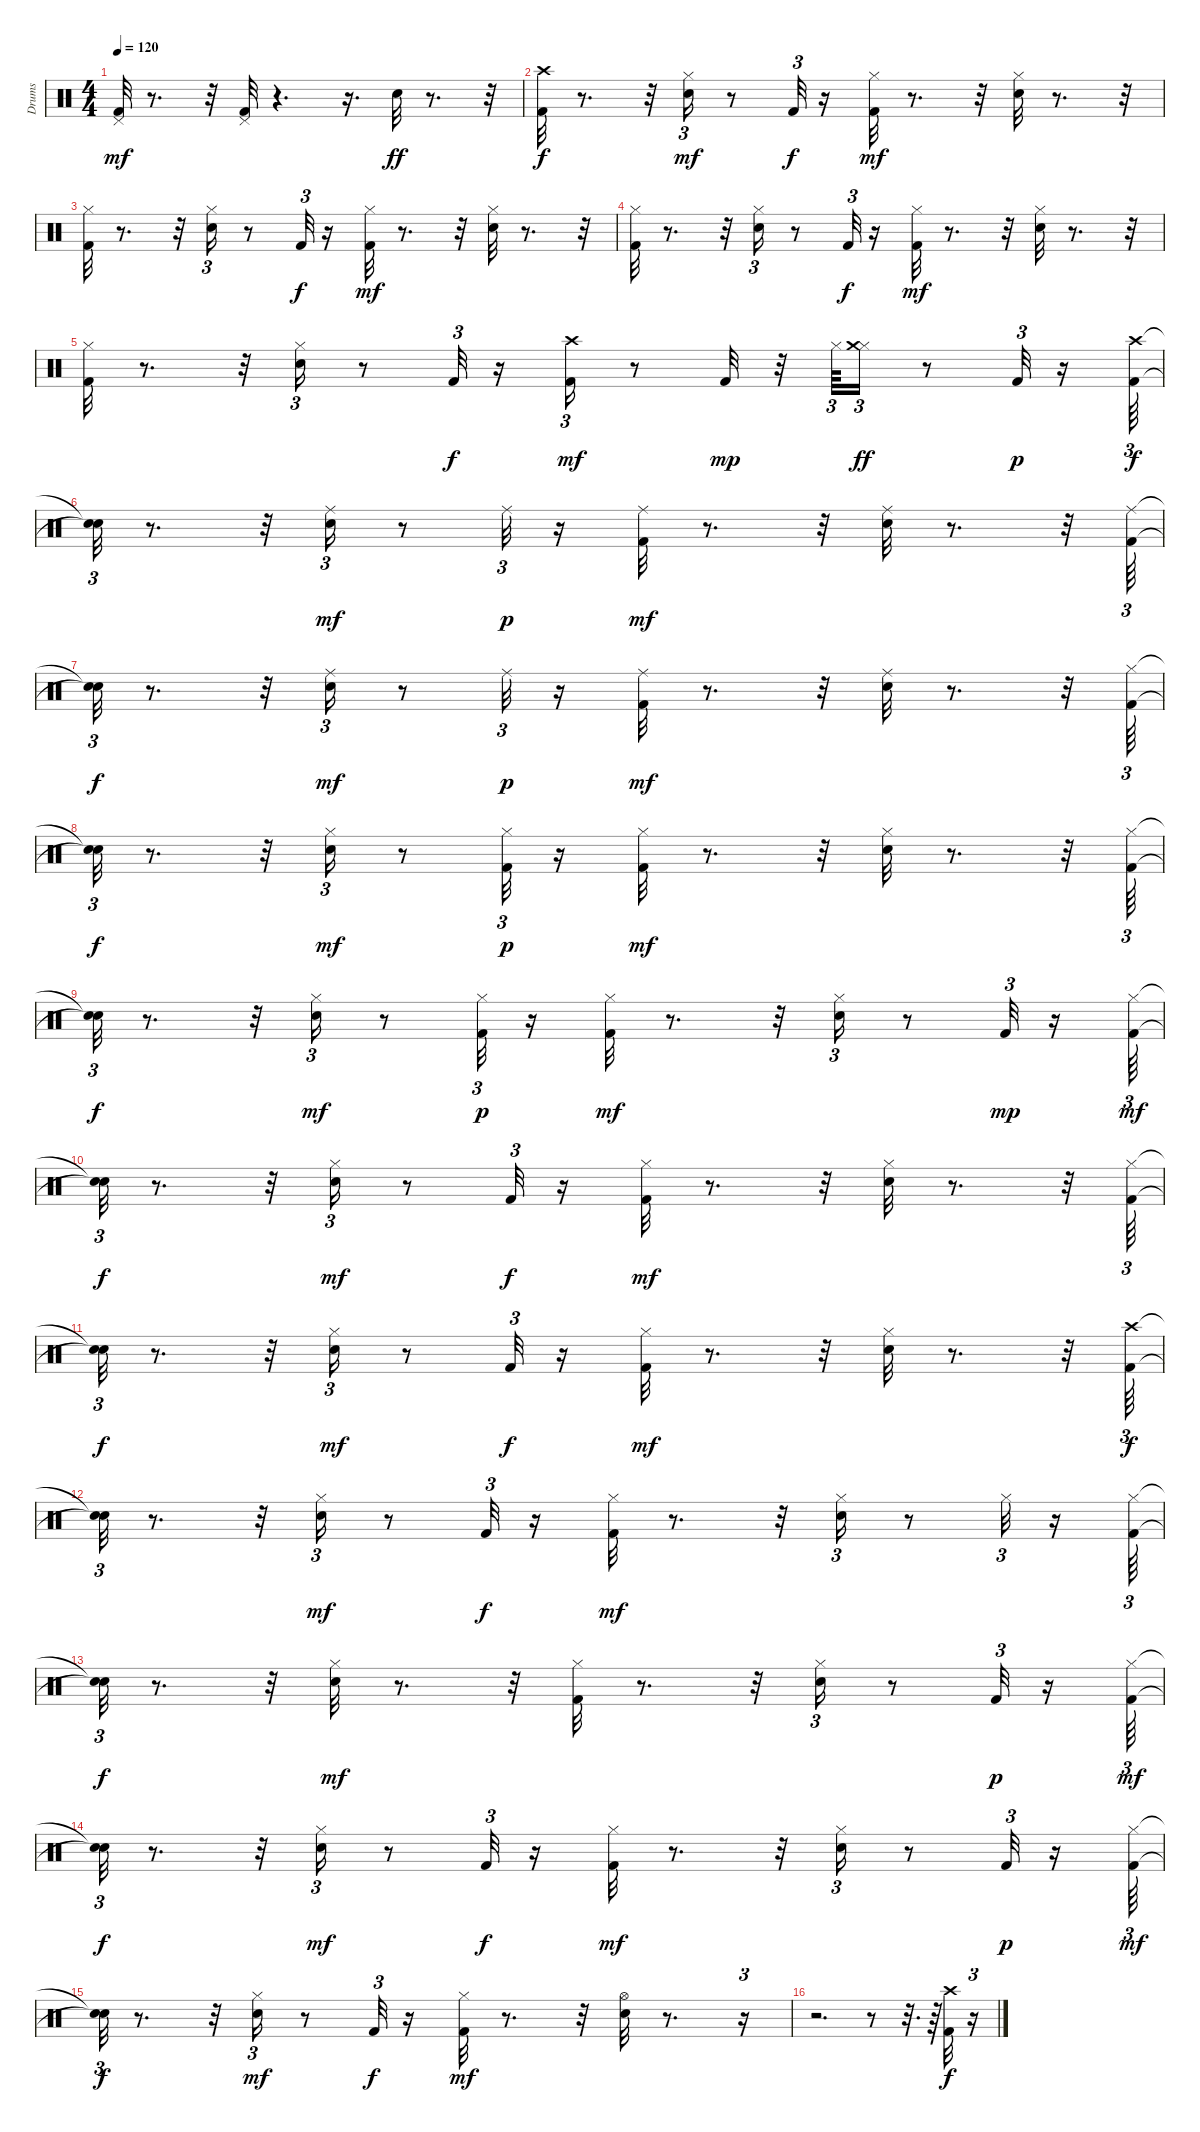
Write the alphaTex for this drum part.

\track ("Drums" "Drums") {instrument percussion}
\staff {score}
\articulation defaults
\ts (4 4)
\tempo 120
\clef neutral
\ks c
("Kick (hit) 2" "Pedal Hi-Hat (hit)").32{dy mf} r.8{d} r.32 ("Kick (hit) 2" "Pedal Hi-Hat (hit)").32 r.4{d} r.16{d} "Electric Snare (hit)".32{dy ff} r.8{d} r.32 |
("Kick (hit) 2" "Crash high (hit)").32{dy f} r.8{d} r.32 ("Electric Snare (hit)" "Hi-Hat (closed)").16{tu (3 2) dy mf} r.8 "Kick (hit) 2".32{tu (3 2) dy f} r.16 ("Kick (hit) 2" "Hi-Hat (closed)").32{dy mf} r.8{d} r.32 ("Electric Snare (hit)" "Hi-Hat (closed)").32 r.8{d} r.32 |
("Kick (hit) 2" "Hi-Hat (closed)").32 r.8{d} r.32 ("Electric Snare (hit)" "Hi-Hat (closed)").16{tu (3 2)} r.8 "Kick (hit) 2".32{tu (3 2) dy f} r.16 ("Kick (hit) 2" "Hi-Hat (closed)").32{dy mf} r.8{d} r.32 ("Electric Snare (hit)" "Hi-Hat (closed)").32 r.8{d} r.32 |
("Kick (hit) 2" "Hi-Hat (closed)").32 r.8{d} r.32 ("Electric Snare (hit)" "Hi-Hat (closed)").16{tu (3 2)} r.8 "Kick (hit) 2".32{tu (3 2) dy f} r.16 ("Kick (hit) 2" "Hi-Hat (closed)").32{dy mf} r.8{d} r.32 ("Electric Snare (hit)" "Hi-Hat (closed)").32 r.8{d} r.32 |
("Kick (hit) 2" "Hi-Hat (closed)").32 r.8{d} r.32 ("Electric Snare (hit)" "Hi-Hat (closed)").16{tu (3 2)} r.8 "Kick (hit) 2".32{tu (3 2) dy f} r.16 ("Kick (hit) 2" "Crash high (hit)").16{tu (3 2) dy mf} r.8 "Kick (hit) 2".32{dy mp} r.32 "Hi-Hat (closed)".64{tu (3 2)} ("Hi-Hat (closed)" "Crash medium (hit)").16{tu (3 2) dy ff} r.8 "Kick (hit) 2".32{tu (3 2) dy p} r.16 ("Kick (hit) 2" "Crash high (hit)").64{tu (3 2) dy f} |
("Snare (hit)"{t} "Snare (hit)"{t}).32{tu (3 2)} r.8{d} r.32 ("Electric Snare (hit)" "Ride (middle)").16{tu (3 2) dy mf} r.8 "Ride (middle)".32{tu (3 2) dy p} r.16 ("Kick (hit) 2" "Ride (middle)").32{dy mf} r.8{d} r.32 ("Electric Snare (hit)" "Ride (middle)").32 r.8{d} r.32 ("Kick (hit) 2" "Ride (middle)").64{tu (3 2)} |
("Snare (hit)"{t} "Snare (hit)"{t}).32{tu (3 2) dy f} r.8{d} r.32 ("Electric Snare (hit)" "Ride (middle)").16{tu (3 2) dy mf} r.8 "Ride (middle)".32{tu (3 2) dy p} r.16 ("Kick (hit) 2" "Ride (middle)").32{dy mf} r.8{d} r.32 ("Electric Snare (hit)" "Ride (middle)").32 r.8{d} r.32 ("Kick (hit) 2" "Hi-Hat (closed)").64{tu (3 2)} |
("Snare (hit)"{t} "Snare (hit)"{t}).32{tu (3 2) dy f} r.8{d} r.32 ("Electric Snare (hit)" "Hi-Hat (closed)").16{tu (3 2) dy mf} r.8 ("Kick (hit) 2" "Hi-Hat (closed)").32{tu (3 2) dy p} r.16 ("Kick (hit) 2" "Hi-Hat (closed)").32{dy mf} r.8{d} r.32 ("Electric Snare (hit)" "Hi-Hat (closed)").32 r.8{d} r.32 ("Kick (hit) 2" "Hi-Hat (closed)").64{tu (3 2)} |
("Snare (hit)"{t} "Snare (hit)"{t}).32{tu (3 2) dy f} r.8{d} r.32 ("Electric Snare (hit)" "Hi-Hat (closed)").16{tu (3 2) dy mf} r.8 ("Kick (hit) 2" "Hi-Hat (closed)").32{tu (3 2) dy p} r.16 ("Kick (hit) 2" "Hi-Hat (closed)").32{dy mf} r.8{d} r.32 ("Electric Snare (hit)" "Hi-Hat (closed)").16{tu (3 2)} r.8 "Kick (hit) 2".32{tu (3 2) dy mp} r.16 ("Kick (hit) 2" "Hi-Hat (closed)").64{tu (3 2) dy mf} |
("Snare (hit)"{t} "Snare (hit)"{t}).32{tu (3 2) dy f} r.8{d} r.32 ("Electric Snare (hit)" "Hi-Hat (closed)").16{tu (3 2) dy mf} r.8 "Kick (hit) 2".32{tu (3 2) dy f} r.16 ("Kick (hit) 2" "Hi-Hat (closed)").32{dy mf} r.8{d} r.32 ("Electric Snare (hit)" "Hi-Hat (closed)").32 r.8{d} r.32 ("Kick (hit) 2" "Hi-Hat (closed)").64{tu (3 2)} |
("Snare (hit)"{t} "Snare (hit)"{t}).32{tu (3 2) dy f} r.8{d} r.32 ("Electric Snare (hit)" "Hi-Hat (closed)").16{tu (3 2) dy mf} r.8 "Kick (hit) 2".32{tu (3 2) dy f} r.16 ("Kick (hit) 2" "Hi-Hat (closed)").32{dy mf} r.8{d} r.32 ("Electric Snare (hit)" "Hi-Hat (closed)").32 r.8{d} r.32 ("Kick (hit) 2" "Crash high (hit)").64{tu (3 2) dy f} |
("Snare (hit)"{t} "Snare (hit)"{t}).32{tu (3 2)} r.8{d} r.32 ("Electric Snare (hit)" "Hi-Hat (closed)").16{tu (3 2) dy mf} r.8 "Kick (hit) 2".32{tu (3 2) dy f} r.16 ("Kick (hit) 2" "Hi-Hat (closed)").32{dy mf} r.8{d} r.32 ("Electric Snare (hit)" "Hi-Hat (closed)").16{tu (3 2)} r.8 "Hi-Hat (closed)".32{tu (3 2)} r.16 ("Kick (hit) 2" "Hi-Hat (closed)").64{tu (3 2)} |
("Snare (hit)"{t} "Snare (hit)"{t}).32{tu (3 2) dy f} r.8{d} r.32 ("Electric Snare (hit)" "Hi-Hat (closed)").32{dy mf} r.8{d} r.32 ("Kick (hit) 2" "Hi-Hat (closed)").32 r.8{d} r.32 ("Electric Snare (hit)" "Hi-Hat (closed)").16{tu (3 2)} r.8 "Kick (hit) 2".32{tu (3 2) dy p} r.16 ("Kick (hit) 2" "Hi-Hat (closed)").64{tu (3 2) dy mf} |
("Snare (hit)"{t} "Snare (hit)"{t}).32{tu (3 2) dy f} r.8{d} r.32 ("Electric Snare (hit)" "Hi-Hat (closed)").16{tu (3 2) dy mf} r.8 "Kick (hit) 2".32{tu (3 2) dy f} r.16 ("Kick (hit) 2" "Hi-Hat (closed)").32{dy mf} r.8{d} r.32 ("Electric Snare (hit)" "Hi-Hat (closed)").16{tu (3 2)} r.8 "Kick (hit) 2".32{tu (3 2) dy p} r.16 ("Kick (hit) 2" "Hi-Hat (closed)").64{tu (3 2) dy mf} |
("Snare (hit)"{t} "Snare (hit)"{t}).32{tu (3 2) dy f} r.8{d} r.32 ("Electric Snare (hit)" "Hi-Hat (closed)").16{tu (3 2) dy mf} r.8 "Kick (hit) 2".32{tu (3 2) dy f} r.16 ("Kick (hit) 2" "Hi-Hat (closed)").32{dy mf} r.8{d} r.32 ("Electric Snare (hit)" "Hi-Hat (open)").32 r.8{d} r.16{tu (3 2)} |
r.2{d} r.8 r.32{d} r.64 ("Kick (hit) 2" "Crash high (hit)").32{dy f} r.16{tu (3 2)}
